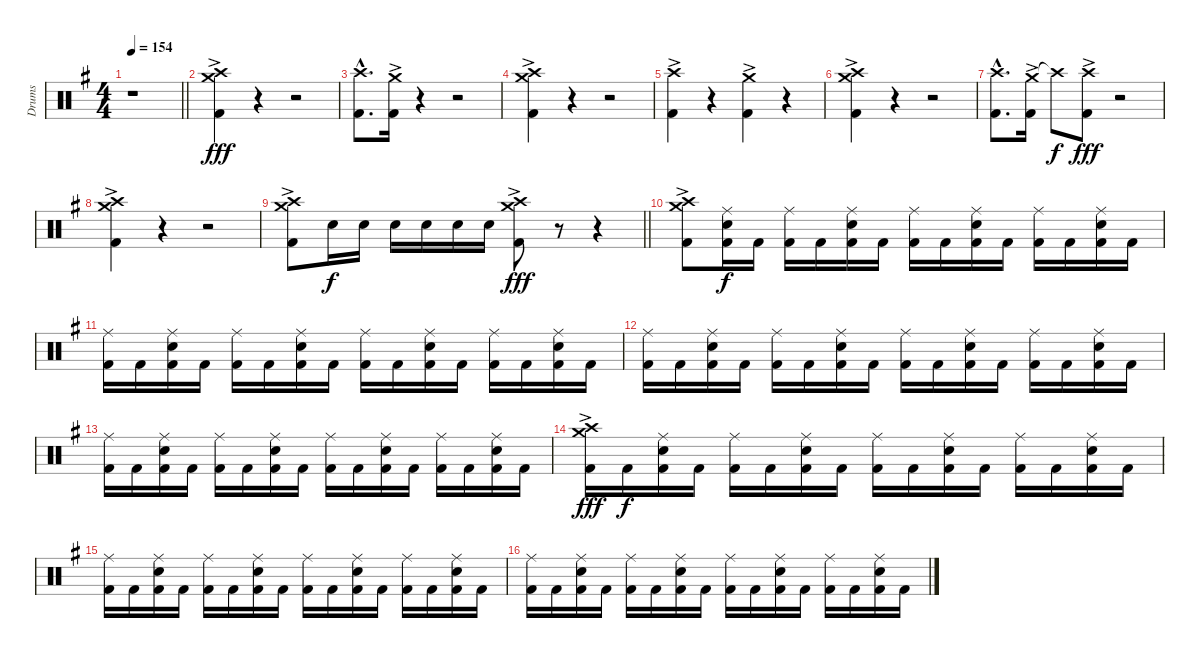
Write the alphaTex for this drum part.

\track ("Drums" "Drums") {instrument percussion}
\staff {score}
\articulation defaults
\ts (4 4)
\tempo 154
\clef neutral
\barLineRight lightlight
\ks g
r.1{dy fff} |
("Crash high (hit)"{ac} "Crash medium (hit)" "Kick (hit) 2"{ac}).4 r.4 r.2 |
("Crash high (hit)"{hac} "Kick (hit) 2"{hac}).8{d} ("Crash medium (hit)"{ac} "Kick (hit) 2").16 r.4 r.2 |
("Crash high (hit)"{ac} "Crash medium (hit)" "Kick (hit) 2"{ac}).4 r.4 r.2 |
("Crash high (hit)"{ac} "Kick (hit) 2"{ac}).4 r.4 ("Crash medium (hit)"{ac} "Kick (hit) 2"{ac}).4 r.4 |
("Crash high (hit)"{ac} "Crash medium (hit)" "Kick (hit) 2"{ac}).4 r.4 r.2 |
("Crash high (hit)"{hac} "Kick (hit) 2"{hac}).8{d} ("Crash medium (hit)"{ac} "Kick (hit) 2").16 "Crash high (hit)"{t}.8{dy f} ("Crash high (hit)"{ac} "Kick (hit) 2"{ac}).8{dy fff} r.2 |
("Crash high (hit)"{ac} "Crash medium (hit)" "Kick (hit) 2"{ac}).4 r.4 r.2 |
\barLineRight lightlight
("Crash high (hit)"{ac} "Crash medium (hit)"{ac} "Kick (hit) 2"{ac}).8 "Snare (hit) 2".16{dy f} "Snare (hit) 2".16 "Snare (hit) 2".16 "Snare (hit) 2".16 "Snare (hit) 2".16 "Snare (hit) 2".16 ("Crash high (hit)"{ac} "Crash medium (hit)"{ac} "Kick (hit) 2"{ac}).8{dy fff} r.8 r.4 |
("Crash medium (hit)"{ac} "Crash high (hit)"{ac} "Kick (hit) 2"{ac}).8 ("Ride (middle)" "Snare (hit) 2" "Kick (hit) 2").16{dy f} "Kick (hit) 2".16 ("Ride (middle)" "Kick (hit) 2").16 "Kick (hit) 2".16 ("Ride (middle)" "Snare (hit) 2" "Kick (hit) 2").16 "Kick (hit) 2".16 ("Ride (middle)" "Kick (hit) 2").16 "Kick (hit) 2".16 ("Ride (middle)" "Snare (hit) 2" "Kick (hit) 2").16 "Kick (hit) 2".16 ("Ride (middle)" "Kick (hit) 2").16 "Kick (hit) 2".16 ("Ride (middle)" "Snare (hit) 2" "Kick (hit) 2").16 "Kick (hit) 2".16 |
("Ride (middle)" "Kick (hit) 2").16 "Kick (hit) 2".16 ("Ride (middle)" "Snare (hit) 2" "Kick (hit) 2").16 "Kick (hit) 2".16 ("Ride (middle)" "Kick (hit) 2").16 "Kick (hit) 2".16 ("Ride (middle)" "Snare (hit) 2" "Kick (hit) 2").16 "Kick (hit) 2".16 ("Ride (middle)" "Kick (hit) 2").16 "Kick (hit) 2".16 ("Ride (middle)" "Snare (hit) 2" "Kick (hit) 2").16 "Kick (hit) 2".16 ("Ride (middle)" "Kick (hit) 2").16 "Kick (hit) 2".16 ("Ride (middle)" "Snare (hit) 2" "Kick (hit) 2").16 "Kick (hit) 2".16 |
("Ride (middle)" "Kick (hit) 2").16 "Kick (hit) 2".16 ("Ride (middle)" "Snare (hit) 2" "Kick (hit) 2").16 "Kick (hit) 2".16 ("Ride (middle)" "Kick (hit) 2").16 "Kick (hit) 2".16 ("Ride (middle)" "Snare (hit) 2" "Kick (hit) 2").16 "Kick (hit) 2".16 ("Ride (middle)" "Kick (hit) 2").16 "Kick (hit) 2".16 ("Ride (middle)" "Snare (hit) 2" "Kick (hit) 2").16 "Kick (hit) 2".16 ("Ride (middle)" "Kick (hit) 2").16 "Kick (hit) 2".16 ("Ride (middle)" "Snare (hit) 2" "Kick (hit) 2").16 "Kick (hit) 2".16 |
("Ride (middle)" "Kick (hit) 2").16 "Kick (hit) 2".16 ("Ride (middle)" "Snare (hit) 2" "Kick (hit) 2").16 "Kick (hit) 2".16 ("Ride (middle)" "Kick (hit) 2").16 "Kick (hit) 2".16 ("Ride (middle)" "Snare (hit) 2" "Kick (hit) 2").16 "Kick (hit) 2".16 ("Ride (middle)" "Kick (hit) 2").16 "Kick (hit) 2".16 ("Ride (middle)" "Snare (hit) 2" "Kick (hit) 2").16 "Kick (hit) 2".16 ("Ride (middle)" "Kick (hit) 2").16 "Kick (hit) 2".16 ("Ride (middle)" "Snare (hit) 2" "Kick (hit) 2").16 "Kick (hit) 2".16 |
("Crash medium (hit)"{ac} "Crash high (hit)"{ac} "Kick (hit) 2"{ac}).16{dy fff} "Kick (hit) 2".16{dy f} ("Ride (middle)" "Snare (hit) 2" "Kick (hit) 2").16 "Kick (hit) 2".16 ("Ride (middle)" "Kick (hit) 2").16 "Kick (hit) 2".16 ("Ride (middle)" "Snare (hit) 2" "Kick (hit) 2").16 "Kick (hit) 2".16 ("Ride (middle)" "Kick (hit) 2").16 "Kick (hit) 2".16 ("Ride (middle)" "Snare (hit) 2" "Kick (hit) 2").16 "Kick (hit) 2".16 ("Ride (middle)" "Kick (hit) 2").16 "Kick (hit) 2".16 ("Ride (middle)" "Snare (hit) 2" "Kick (hit) 2").16 "Kick (hit) 2".16 |
("Ride (middle)" "Kick (hit) 2").16 "Kick (hit) 2".16 ("Ride (middle)" "Snare (hit) 2" "Kick (hit) 2").16 "Kick (hit) 2".16 ("Ride (middle)" "Kick (hit) 2").16 "Kick (hit) 2".16 ("Ride (middle)" "Snare (hit) 2" "Kick (hit) 2").16 "Kick (hit) 2".16 ("Ride (middle)" "Kick (hit) 2").16 "Kick (hit) 2".16 ("Ride (middle)" "Snare (hit) 2" "Kick (hit) 2").16 "Kick (hit) 2".16 ("Ride (middle)" "Kick (hit) 2").16 "Kick (hit) 2".16 ("Ride (middle)" "Snare (hit) 2" "Kick (hit) 2").16 "Kick (hit) 2".16 |
("Ride (middle)" "Kick (hit) 2").16 "Kick (hit) 2".16 ("Ride (middle)" "Snare (hit) 2" "Kick (hit) 2").16 "Kick (hit) 2".16 ("Ride (middle)" "Kick (hit) 2").16 "Kick (hit) 2".16 ("Ride (middle)" "Snare (hit) 2" "Kick (hit) 2").16 "Kick (hit) 2".16 ("Ride (middle)" "Kick (hit) 2").16 "Kick (hit) 2".16 ("Ride (middle)" "Snare (hit) 2" "Kick (hit) 2").16 "Kick (hit) 2".16 ("Ride (middle)" "Kick (hit) 2").16 "Kick (hit) 2".16 ("Ride (middle)" "Snare (hit) 2" "Kick (hit) 2").16 "Kick (hit) 2".16
